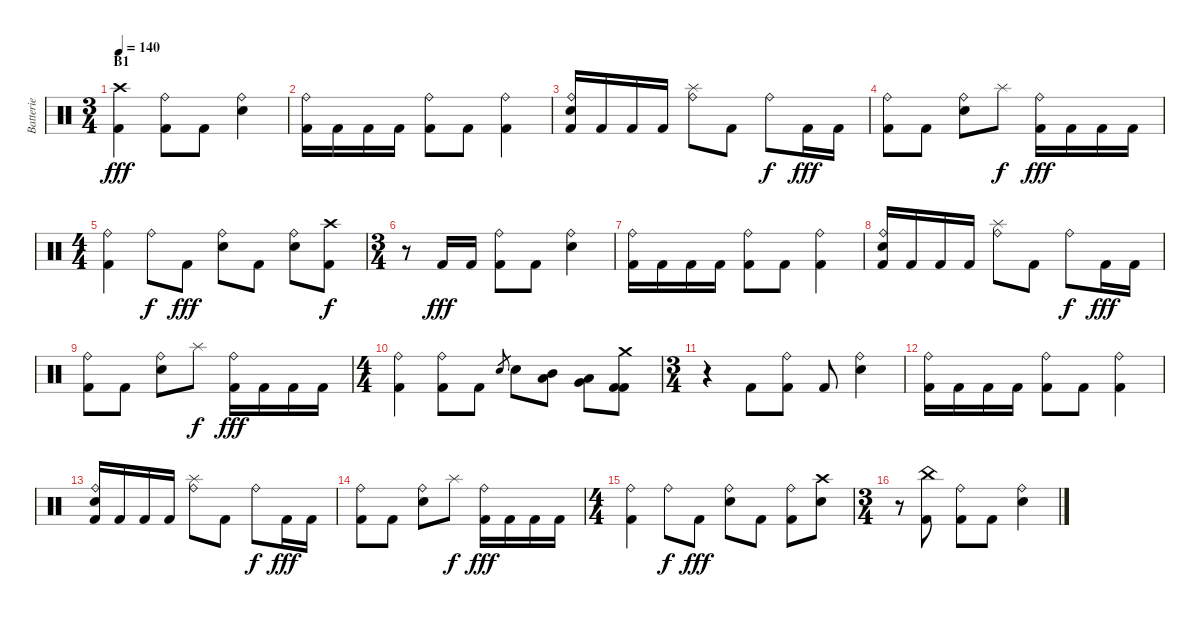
\track ("Batterie" "Batterie") {instrument percussion}
\staff {score}
\articulation defaults
\ts (3 4)
\section ("" "B1")
\tempo 140
\clef neutral
\ks c
("Crash high (hit)" "Kick (hit) 2").4{dy fff} ("Ride (bell)" "Kick (hit) 2").8 "Kick (hit) 2".8 ("Ride (bell)" "Electric Snare (hit)").4 |
("Ride (bell)" "Kick (hit) 2").16 "Kick (hit) 2".16 "Kick (hit) 2".16 "Kick (hit) 2".16 ("Ride (bell)" "Kick (hit) 2").8 "Kick (hit) 2".8 ("Ride (bell)" "Kick (hit) 2").4 |
("Ride (bell)" "Electric Snare (hit)" "Kick (hit) 2").16 "Kick (hit) 2".16 "Kick (hit) 2".16 "Kick (hit) 2".16 ("Ride (bell)" "Splash (hit)").8 "Kick (hit) 2".8 "Ride (bell)".8{dy f} "Kick (hit) 2".16{dy fff} "Kick (hit) 2".16 |
("Ride (bell)" "Kick (hit) 2").8 "Kick (hit) 2".8 ("Ride (bell)" "Electric Snare (hit)").8 "Splash (hit)".8{dy f} ("Ride (bell)" "Kick (hit) 2").16{dy fff} "Kick (hit) 2".16 "Kick (hit) 2".16 "Kick (hit) 2".16 |
\ts (4 4)
("Ride (bell)" "Kick (hit) 2").4 "Ride (bell)".8{dy f} "Kick (hit) 2".8{dy fff} ("Ride (bell)" "Electric Snare (hit)").8 "Kick (hit) 2".8 ("Ride (bell)" "Electric Snare (hit)").8 ("Crash high (hit)" "Kick (hit) 2").8{dy f} |
\ts (3 4)
r.8 "Kick (hit) 2".16{dy fff} "Kick (hit) 2".16 ("Ride (bell)" "Kick (hit) 2").8 "Kick (hit) 2".8 ("Ride (bell)" "Electric Snare (hit)").4 |
("Ride (bell)" "Kick (hit) 2").16 "Kick (hit) 2".16 "Kick (hit) 2".16 "Kick (hit) 2".16 ("Ride (bell)" "Kick (hit) 2").8 "Kick (hit) 2".8 ("Ride (bell)" "Kick (hit) 2").4 |
("Ride (bell)" "Electric Snare (hit)" "Kick (hit) 2").16 "Kick (hit) 2".16 "Kick (hit) 2".16 "Kick (hit) 2".16 ("Ride (bell)" "Splash (hit)").8 "Kick (hit) 2".8 "Ride (bell)".8{dy f} "Kick (hit) 2".16{dy fff} "Kick (hit) 2".16 |
("Ride (bell)" "Kick (hit) 2").8 "Kick (hit) 2".8 ("Ride (bell)" "Electric Snare (hit)").8 "Splash (hit)".8{dy f} ("Ride (bell)" "Kick (hit) 2").16{dy fff} "Kick (hit) 2".16 "Kick (hit) 2".16 "Kick (hit) 2".16 |
\ts (4 4)
("Ride (bell)" "Kick (hit) 2").4 ("Ride (bell)" "Kick (hit) 2").8 "Kick (hit) 2".8 "Electric Snare (hit)".8{gr} "Electric Snare (hit)".8 ("Mid Tom (hit)" "Low Tom (hit)").8 ("Very Low Tom (hit)" "Low Floor Tom (hit)").8 ("Crash medium (hit)" "Kick (hit) 2" "Kick (hit) 2").8 |
\ts (3 4)
r.4 "Kick (hit) 2".8 ("Ride (bell)" "Kick (hit) 2").8 "Kick (hit) 2".8 ("Ride (bell)" "Electric Snare (hit)").4 |
("Ride (bell)" "Kick (hit) 2").16 "Kick (hit) 2".16 "Kick (hit) 2".16 "Kick (hit) 2".16 ("Ride (bell)" "Kick (hit) 2").8 "Kick (hit) 2".8 ("Ride (bell)" "Kick (hit) 2").4 |
("Ride (bell)" "Electric Snare (hit)" "Kick (hit) 2").16 "Kick (hit) 2".16 "Kick (hit) 2".16 "Kick (hit) 2".16 ("Ride (bell)" "Splash (hit)").8 "Kick (hit) 2".8 "Ride (bell)".8{dy f} "Kick (hit) 2".16{dy fff} "Kick (hit) 2".16 |
("Ride (bell)" "Kick (hit) 2").8 "Kick (hit) 2".8 ("Ride (bell)" "Electric Snare (hit)").8 "Splash (hit)".8{dy f} ("Ride (bell)" "Kick (hit) 2").16{dy fff} "Kick (hit) 2".16 "Kick (hit) 2".16 "Kick (hit) 2".16 |
\ts (4 4)
("Ride (bell)" "Kick (hit) 2").4 "Ride (bell)".8{dy f} "Kick (hit) 2".8{dy fff} ("Ride (bell)" "Electric Snare (hit)").8 "Kick (hit) 2".8 ("Ride (bell)" "Kick (hit) 2").8 ("Crash high (hit)" "Electric Snare (hit)").8 |
\ts (3 4)
r.8 ("China (hit)" "Kick (hit) 2").8 ("Ride (bell)" "Kick (hit) 2").8 "Kick (hit) 2".8 ("Ride (bell)" "Electric Snare (hit)").4
